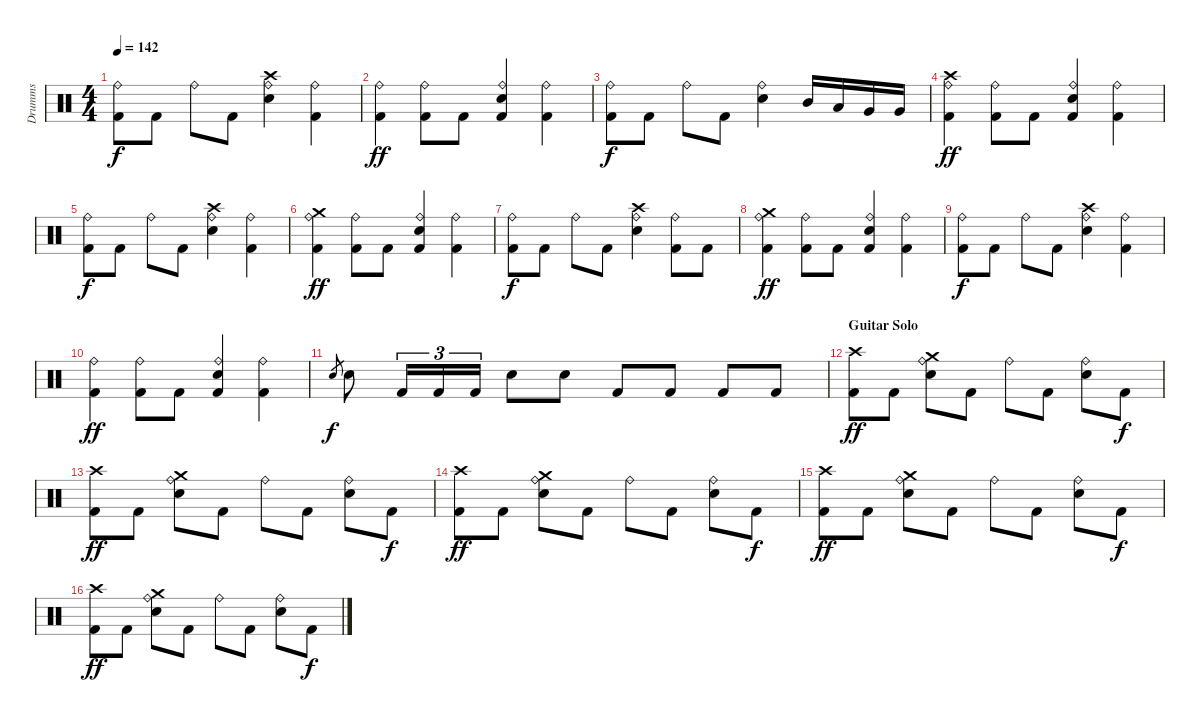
\track ("Drumms" "Drumms") {instrument percussion}
\staff {score}
\articulation defaults
\ts (4 4)
\tempo 142
\clef neutral
\ks c
("Kick (hit) 2" "Ride (bell)").8{dy f} "Kick (hit) 2".8 "Ride (bell)".8 "Kick (hit) 2".8 ("Ride (bell)" "Electric Snare (hit)" "Crash high (hit)").4 ("Kick (hit) 2" "Ride (bell)").4 |
("Kick (hit) 2" "Ride (bell)").4{dy ff} ("Kick (hit) 2" "Ride (bell)").8 "Kick (hit) 2".8 ("Kick (hit) 2" "Electric Snare (hit)" "Ride (bell)").4 ("Kick (hit) 2" "Ride (bell)").4 |
("Kick (hit) 2" "Ride (bell)").8{dy f} "Kick (hit) 2".8 "Ride (bell)".8 "Kick (hit) 2".8 ("Ride (bell)" "Electric Snare (hit)").4 "Mid Tom (hit)".16 "Low Tom (hit)".16 "Very Low Tom (hit)".16 "Very Low Tom (hit)".16 |
("Kick (hit) 2" "Crash high (hit)" "Ride (bell)").4{dy ff} ("Kick (hit) 2" "Ride (bell)").8 "Kick (hit) 2".8 ("Kick (hit) 2" "Electric Snare (hit)" "Ride (bell)").4 ("Kick (hit) 2" "Ride (bell)").4 |
("Kick (hit) 2" "Ride (bell)").8{dy f} "Kick (hit) 2".8 "Ride (bell)".8 "Kick (hit) 2".8 ("Ride (bell)" "Electric Snare (hit)" "Crash high (hit)").4 ("Kick (hit) 2" "Ride (bell)").4 |
("Kick (hit) 2" "Crash medium (hit)" "Ride (bell)").4{dy ff} ("Kick (hit) 2" "Ride (bell)").8 "Kick (hit) 2".8 ("Kick (hit) 2" "Electric Snare (hit)" "Ride (bell)").4 ("Kick (hit) 2" "Ride (bell)").4 |
("Kick (hit) 2" "Ride (bell)").8{dy f} "Kick (hit) 2".8 "Ride (bell)".8 "Kick (hit) 2".8 ("Ride (bell)" "Electric Snare (hit)" "Crash high (hit)").4 ("Kick (hit) 2" "Ride (bell)").8 "Kick (hit) 2".8 |
("Kick (hit) 2" "Crash medium (hit)" "Ride (bell)").4{dy ff} ("Kick (hit) 2" "Ride (bell)").8 "Kick (hit) 2".8 ("Kick (hit) 2" "Electric Snare (hit)" "Ride (bell)").4 ("Kick (hit) 2" "Ride (bell)").4 |
("Kick (hit) 2" "Ride (bell)").8{dy f} "Kick (hit) 2".8 "Ride (bell)".8 "Kick (hit) 2".8 ("Ride (bell)" "Electric Snare (hit)" "Crash high (hit)").4 ("Kick (hit) 2" "Ride (bell)").4 |
("Kick (hit) 2" "Ride (bell)").4{dy ff} ("Kick (hit) 2" "Ride (bell)").8 "Kick (hit) 2".8 ("Kick (hit) 2" "Electric Snare (hit)" "Ride (bell)").4 ("Kick (hit) 2" "Ride (bell)").4 |
"Electric Snare (hit)".8{gr dy f} "Electric Snare (hit)".8 "Kick (hit) 2".16{tu (3 2)} "Kick (hit) 2".16{tu (3 2)} "Kick (hit) 2".16{tu (3 2)} "Electric Snare (hit)".8 "Electric Snare (hit)".8 "Kick (hit) 2".8 "Kick (hit) 2".8 "Kick (hit) 2".8 "Kick (hit) 2".8 |
\section ("" "Guitar Solo")
("Kick (hit) 2" "Crash high (hit)").8{dy ff} "Kick (hit) 2".8 ("Electric Snare (hit)" "Ride (bell)" "Crash medium (hit)").8 "Kick (hit) 2".8 "Ride (bell)".8 "Kick (hit) 2".8 ("Electric Snare (hit)" "Ride (bell)").8 "Kick (hit) 2".8{dy f} |
("Kick (hit) 2" "Crash high (hit)").8{dy ff} "Kick (hit) 2".8 ("Electric Snare (hit)" "Ride (bell)" "Crash medium (hit)").8 "Kick (hit) 2".8 "Ride (bell)".8 "Kick (hit) 2".8 ("Electric Snare (hit)" "Ride (bell)").8 "Kick (hit) 2".8{dy f} |
("Kick (hit) 2" "Crash high (hit)").8{dy ff} "Kick (hit) 2".8 ("Electric Snare (hit)" "Ride (bell)" "Crash medium (hit)").8 "Kick (hit) 2".8 "Ride (bell)".8 "Kick (hit) 2".8 ("Electric Snare (hit)" "Ride (bell)").8 "Kick (hit) 2".8{dy f} |
("Kick (hit) 2" "Crash high (hit)").8{dy ff} "Kick (hit) 2".8 ("Electric Snare (hit)" "Ride (bell)" "Crash medium (hit)").8 "Kick (hit) 2".8 "Ride (bell)".8 "Kick (hit) 2".8 ("Electric Snare (hit)" "Ride (bell)").8 "Kick (hit) 2".8{dy f} |
("Kick (hit) 2" "Crash high (hit)").8{dy ff} "Kick (hit) 2".8 ("Electric Snare (hit)" "Ride (bell)" "Crash medium (hit)").8 "Kick (hit) 2".8 "Ride (bell)".8 "Kick (hit) 2".8 ("Electric Snare (hit)" "Ride (bell)").8 "Kick (hit) 2".8{dy f}
